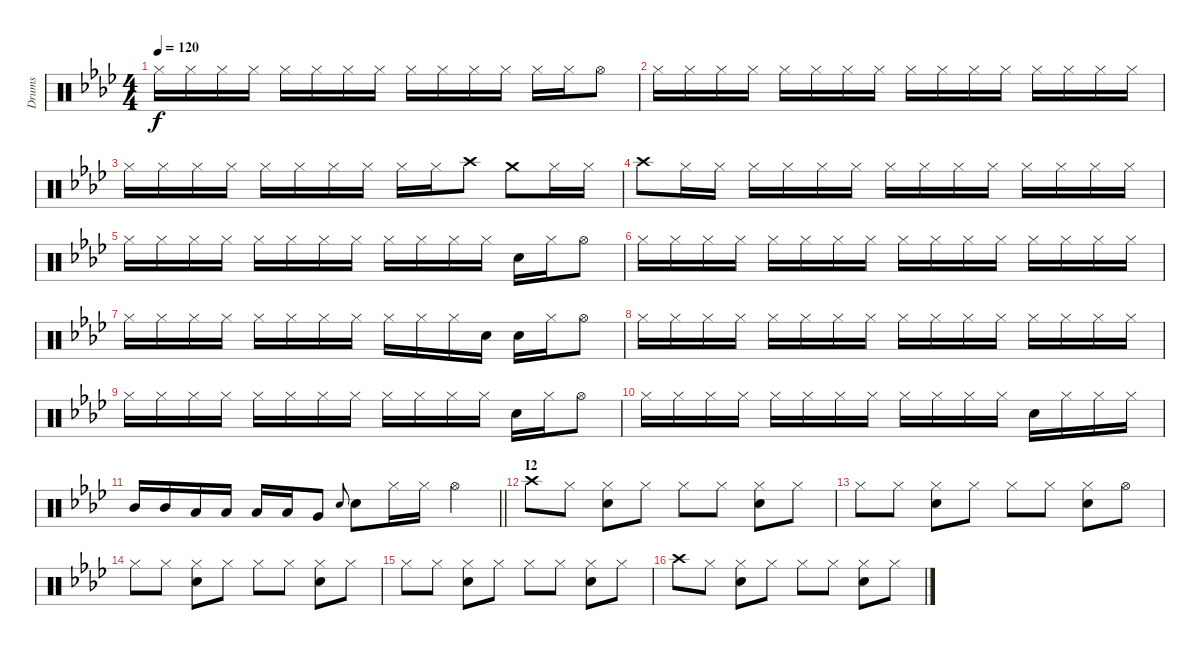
\track ("Drums" "Drums") {instrument percussion}
\staff {score}
\articulation defaults
\ts (4 4)
\tempo 120
\clef neutral
\ks ab "Hi-Hat (closed)".16{dy f} "Hi-Hat (closed)".16 "Hi-Hat (closed)".16 "Hi-Hat (closed)".16 "Hi-Hat (closed)".16 "Hi-Hat (closed)".16 "Hi-Hat (closed)".16 "Hi-Hat (closed)".16 "Hi-Hat (closed)".16 "Hi-Hat (closed)".16 "Hi-Hat (closed)".16 "Hi-Hat (closed)".16 "Hi-Hat (closed)".16 "Hi-Hat (closed)".16 "Hi-Hat (open)".8
|
"Hi-Hat (closed)".16 "Hi-Hat (closed)".16 "Hi-Hat (closed)".16 "Hi-Hat (closed)".16 "Hi-Hat (closed)".16 "Hi-Hat (closed)".16 "Hi-Hat (closed)".16 "Hi-Hat (closed)".16 "Hi-Hat (closed)".16 "Hi-Hat (closed)".16 "Hi-Hat (closed)".16 "Hi-Hat (closed)".16 "Hi-Hat (closed)".16 "Hi-Hat (closed)".16 "Hi-Hat (closed)".16 "Hi-Hat (closed)".16 |
"Hi-Hat (closed)".16 "Hi-Hat (closed)".16 "Hi-Hat (closed)".16 "Hi-Hat (closed)".16 "Hi-Hat (closed)".16 "Hi-Hat (closed)".16 "Hi-Hat (closed)".16 "Hi-Hat (closed)".16 "Hi-Hat (closed)".16 "Hi-Hat (closed)".16 "Crash high (hit)".8 "Crash medium (hit)".8 "Hi-Hat (closed)".16 "Hi-Hat (closed)".16 |
"Crash high (hit)".8 "Hi-Hat (closed)".16 "Hi-Hat (closed)".16 "Hi-Hat (closed)".16 "Hi-Hat (closed)".16 "Hi-Hat (closed)".16 "Hi-Hat (closed)".16 "Hi-Hat (closed)".16 "Hi-Hat (closed)".16 "Hi-Hat (closed)".16 "Hi-Hat (closed)".16 "Hi-Hat (closed)".16 "Hi-Hat (closed)".16 "Hi-Hat (closed)".16 "Hi-Hat (closed)".16 |
"Hi-Hat (closed)".16 "Hi-Hat (closed)".16 "Hi-Hat (closed)".16 "Hi-Hat (closed)".16 "Hi-Hat (closed)".16 "Hi-Hat (closed)".16 "Hi-Hat (closed)".16 "Hi-Hat (closed)".16 "Hi-Hat (closed)".16 "Hi-Hat (closed)".16 "Hi-Hat (closed)".16 "Hi-Hat (closed)".16 "Snare (hit) 2".16 "Hi-Hat (closed)".16 "Hi-Hat (open)".8 |
"Hi-Hat (closed)".16 "Hi-Hat (closed)".16 "Hi-Hat (closed)".16 "Hi-Hat (closed)".16 "Hi-Hat (closed)".16 "Hi-Hat (closed)".16 "Hi-Hat (closed)".16 "Hi-Hat (closed)".16 "Hi-Hat (closed)".16 "Hi-Hat (closed)".16 "Hi-Hat (closed)".16 "Hi-Hat (closed)".16 "Hi-Hat (closed)".16 "Hi-Hat (closed)".16 "Hi-Hat (closed)".16 "Hi-Hat (closed)".16 |
"Hi-Hat (closed)".16 "Hi-Hat (closed)".16 "Hi-Hat (closed)".16 "Hi-Hat (closed)".16 "Hi-Hat (closed)".16 "Hi-Hat (closed)".16 "Hi-Hat (closed)".16 "Hi-Hat (closed)".16 "Hi-Hat (closed)".16 "Hi-Hat (closed)".16 "Hi-Hat (closed)".16 "Snare (hit) 2".16 "Snare (hit) 2".16 "Hi-Hat (closed)".16 "Hi-Hat (open)".8 |
"Hi-Hat (closed)".16 "Hi-Hat (closed)".16 "Hi-Hat (closed)".16 "Hi-Hat (closed)".16 "Hi-Hat (closed)".16 "Hi-Hat (closed)".16 "Hi-Hat (closed)".16 "Hi-Hat (closed)".16 "Hi-Hat (closed)".16 "Hi-Hat (closed)".16 "Hi-Hat (closed)".16 "Hi-Hat (closed)".16 "Hi-Hat (closed)".16 "Hi-Hat (closed)".16 "Hi-Hat (closed)".16 "Hi-Hat (closed)".16 |
"Hi-Hat (closed)".16 "Hi-Hat (closed)".16 "Hi-Hat (closed)".16 "Hi-Hat (closed)".16 "Hi-Hat (closed)".16 "Hi-Hat (closed)".16 "Hi-Hat (closed)".16 "Hi-Hat (closed)".16 "Hi-Hat (closed)".16 "Hi-Hat (closed)".16 "Hi-Hat (closed)".16 "Hi-Hat (closed)".16 "Snare (hit) 2".16 "Hi-Hat (closed)".16 "Hi-Hat (open)".8 |
"Hi-Hat (closed)".16 "Hi-Hat (closed)".16 "Hi-Hat (closed)".16 "Hi-Hat (closed)".16 "Hi-Hat (closed)".16 "Hi-Hat (closed)".16 "Hi-Hat (closed)".16 "Hi-Hat (closed)".16 "Hi-Hat (closed)".16 "Hi-Hat (closed)".16 "Hi-Hat (closed)".16 "Hi-Hat (closed)".16 "Snare (hit) 2".16 "Hi-Hat (closed)".16 "Hi-Hat (closed)".16 "Hi-Hat (closed)".16 |
\barLineRight lightlight "Mid Tom (hit)".16 "Mid Tom (hit)".16 "Low Tom (hit)".16 "Low Tom (hit)".16 "Low Tom (hit)".16 "Low Tom (hit)".16 "Very Low Tom (hit)".8 "Snare (hit) 2".8{gr onbeat} "Snare (hit) 2".8 "Hi-Hat (closed)".16 "Hi-Hat (closed)".16 "Hi-Hat (open)".4
|
\section ("" "I2")
"Crash high (hit)".8 "Hi-Hat (closed)".8 ("Hi-Hat (closed)" "Snare (hit) 2").8 "Hi-Hat (closed)".8 "Hi-Hat (closed)".8 "Hi-Hat (closed)".8 ("Hi-Hat (closed)" "Snare (hit) 2").8 "Hi-Hat (closed)".8 |
"Hi-Hat (closed)".8 "Hi-Hat (closed)".8 ("Hi-Hat (closed)" "Snare (hit) 2").8 "Hi-Hat (closed)".8 "Hi-Hat (closed)".8 "Hi-Hat (closed)".8 ("Hi-Hat (closed)" "Snare (hit) 2").8 "Hi-Hat (open)".8 |
"Hi-Hat (closed)".8 "Hi-Hat (closed)".8 ("Hi-Hat (closed)" "Snare (hit) 2").8 "Hi-Hat (closed)".8 "Hi-Hat (closed)".8 "Hi-Hat (closed)".8 ("Hi-Hat (closed)" "Snare (hit) 2").8 "Hi-Hat (closed)".8 |
"Hi-Hat (closed)".8 "Hi-Hat (closed)".8 ("Hi-Hat (closed)" "Snare (hit) 2").8 "Hi-Hat (closed)".8 "Hi-Hat (closed)".8 "Hi-Hat (closed)".8 ("Hi-Hat (closed)" "Snare (hit) 2").8 "Hi-Hat (closed)".8 |
"Crash high (hit)".8 "Hi-Hat (closed)".8 ("Hi-Hat (closed)" "Snare (hit) 2").8 "Hi-Hat (closed)".8 "Hi-Hat (closed)".8 "Hi-Hat (closed)".8 ("Hi-Hat (closed)" "Snare (hit) 2").8 "Hi-Hat (closed)".8
